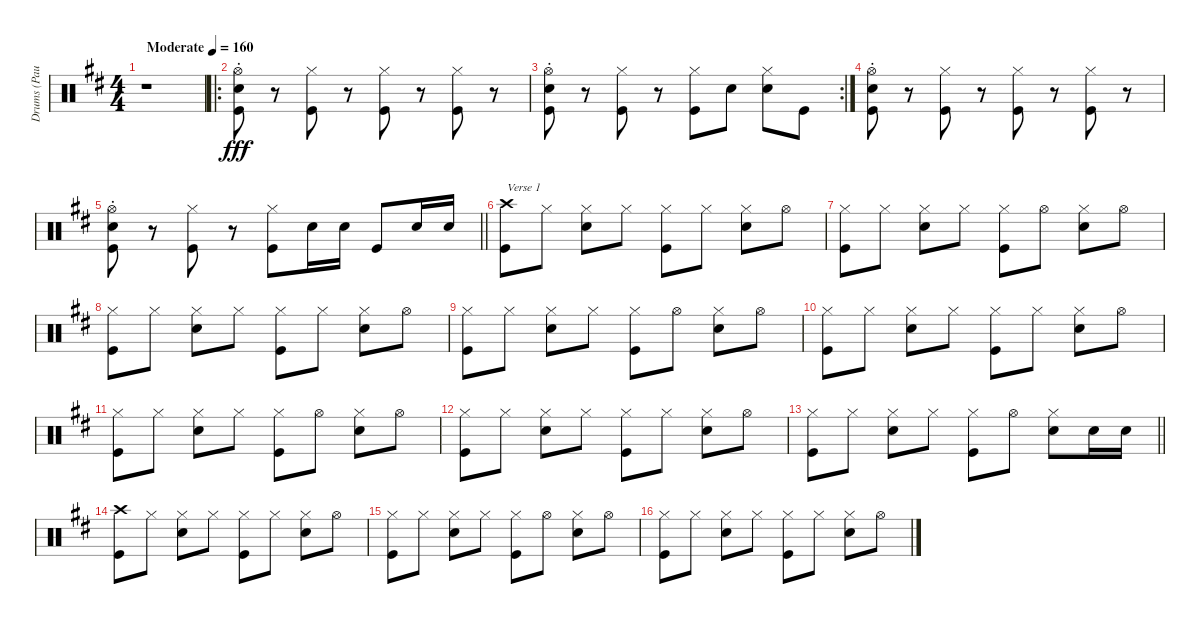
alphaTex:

\track ("Drums (Paul)" "Drums (Pau") {instrument percussion}
\staff {score}
\articulation defaults
\ts (4 4)
\tempo (160 "Moderate")
\clef neutral
\ks d
r.1{dy fff} |
\ro
("Hi-Hat (open)"{st} "Electric Snare (hit)"{st} "Kick (hit)"{st}).8 r.8 ("Hi-Hat (closed)" "Kick (hit)").8 r.8 ("Hi-Hat (closed)" "Kick (hit)").8 r.8 ("Hi-Hat (closed)" "Kick (hit)").8 r.8 |
\rc 2
("Hi-Hat (open)"{st} "Electric Snare (hit)"{st} "Kick (hit)"{st}).8 r.8 ("Hi-Hat (closed)" "Kick (hit)").8 r.8 ("Hi-Hat (closed)" "Kick (hit)").8 "Electric Snare (hit)".8 ("Hi-Hat (closed)" "Electric Snare (hit)").8 "Kick (hit)".8 |
("Hi-Hat (open)"{st} "Electric Snare (hit)"{st} "Kick (hit)"{st}).8 r.8 ("Hi-Hat (closed)" "Kick (hit)").8 r.8 ("Hi-Hat (closed)" "Kick (hit)").8 r.8 ("Hi-Hat (closed)" "Kick (hit)").8 r.8 |
\barLineRight lightlight
("Hi-Hat (open)"{st} "Electric Snare (hit)"{st} "Kick (hit)"{st}).8 r.8 ("Hi-Hat (closed)" "Kick (hit)").8 r.8 ("Hi-Hat (closed)" "Kick (hit)").8 "Electric Snare (hit)".16 "Electric Snare (hit)".16 "Kick (hit)".8 "Electric Snare (hit)".16 "Electric Snare (hit)".16 |
("Crash high (hit)" "Kick (hit)").8{txt "Verse 1"} "Hi-Hat (closed)".8 ("Hi-Hat (closed)" "Electric Snare (hit)").8 "Hi-Hat (closed)".8 ("Hi-Hat (closed)" "Kick (hit)").8 "Hi-Hat (closed)".8 ("Hi-Hat (closed)" "Electric Snare (hit)").8 "Hi-Hat (open)".8 |
("Hi-Hat (closed)" "Kick (hit)").8 "Hi-Hat (closed)".8 ("Hi-Hat (closed)" "Electric Snare (hit)").8 "Hi-Hat (closed)".8 ("Hi-Hat (closed)" "Kick (hit)").8 "Hi-Hat (open)".8 ("Hi-Hat (closed)" "Electric Snare (hit)").8 "Hi-Hat (open)".8 |
("Hi-Hat (closed)" "Kick (hit)").8 "Hi-Hat (closed)".8 ("Hi-Hat (closed)" "Electric Snare (hit)").8 "Hi-Hat (closed)".8 ("Hi-Hat (closed)" "Kick (hit)").8 "Hi-Hat (closed)".8 ("Hi-Hat (closed)" "Electric Snare (hit)").8 "Hi-Hat (open)".8 |
("Hi-Hat (closed)" "Kick (hit)").8 "Hi-Hat (closed)".8 ("Hi-Hat (closed)" "Electric Snare (hit)").8 "Hi-Hat (closed)".8 ("Hi-Hat (closed)" "Kick (hit)").8 "Hi-Hat (open)".8 ("Hi-Hat (closed)" "Electric Snare (hit)").8 "Hi-Hat (open)".8 |
("Hi-Hat (closed)" "Kick (hit)").8 "Hi-Hat (closed)".8 ("Hi-Hat (closed)" "Electric Snare (hit)").8 "Hi-Hat (closed)".8 ("Hi-Hat (closed)" "Kick (hit)").8 "Hi-Hat (closed)".8 ("Hi-Hat (closed)" "Electric Snare (hit)").8 "Hi-Hat (open)".8 |
("Hi-Hat (closed)" "Kick (hit)").8 "Hi-Hat (closed)".8 ("Hi-Hat (closed)" "Electric Snare (hit)").8 "Hi-Hat (closed)".8 ("Hi-Hat (closed)" "Kick (hit)").8 "Hi-Hat (open)".8 ("Hi-Hat (closed)" "Electric Snare (hit)").8 "Hi-Hat (open)".8 |
("Hi-Hat (closed)" "Kick (hit)").8 "Hi-Hat (closed)".8 ("Hi-Hat (closed)" "Electric Snare (hit)").8 "Hi-Hat (closed)".8 ("Hi-Hat (closed)" "Kick (hit)").8 "Hi-Hat (closed)".8 ("Hi-Hat (closed)" "Electric Snare (hit)").8 "Hi-Hat (open)".8 |
\barLineRight lightlight
("Hi-Hat (closed)" "Kick (hit)").8 "Hi-Hat (closed)".8 ("Hi-Hat (closed)" "Electric Snare (hit)").8 "Hi-Hat (closed)".8 ("Hi-Hat (closed)" "Kick (hit)").8 "Hi-Hat (open)".8 ("Hi-Hat (closed)" "Electric Snare (hit)").8 "Electric Snare (hit)".16 "Electric Snare (hit)".16 |
("Crash high (hit)" "Kick (hit)").8 "Hi-Hat (closed)".8 ("Hi-Hat (closed)" "Electric Snare (hit)").8 "Hi-Hat (closed)".8 ("Hi-Hat (closed)" "Kick (hit)").8 "Hi-Hat (closed)".8 ("Hi-Hat (closed)" "Electric Snare (hit)").8 "Hi-Hat (open)".8 |
("Hi-Hat (closed)" "Kick (hit)").8 "Hi-Hat (closed)".8 ("Hi-Hat (closed)" "Electric Snare (hit)").8 "Hi-Hat (closed)".8 ("Hi-Hat (closed)" "Kick (hit)").8 "Hi-Hat (open)".8 ("Hi-Hat (closed)" "Electric Snare (hit)").8 "Hi-Hat (open)".8 |
("Hi-Hat (closed)" "Kick (hit)").8 "Hi-Hat (closed)".8 ("Hi-Hat (closed)" "Electric Snare (hit)").8 "Hi-Hat (closed)".8 ("Hi-Hat (closed)" "Kick (hit)").8 "Hi-Hat (closed)".8 ("Hi-Hat (closed)" "Electric Snare (hit)").8 "Hi-Hat (open)".8
